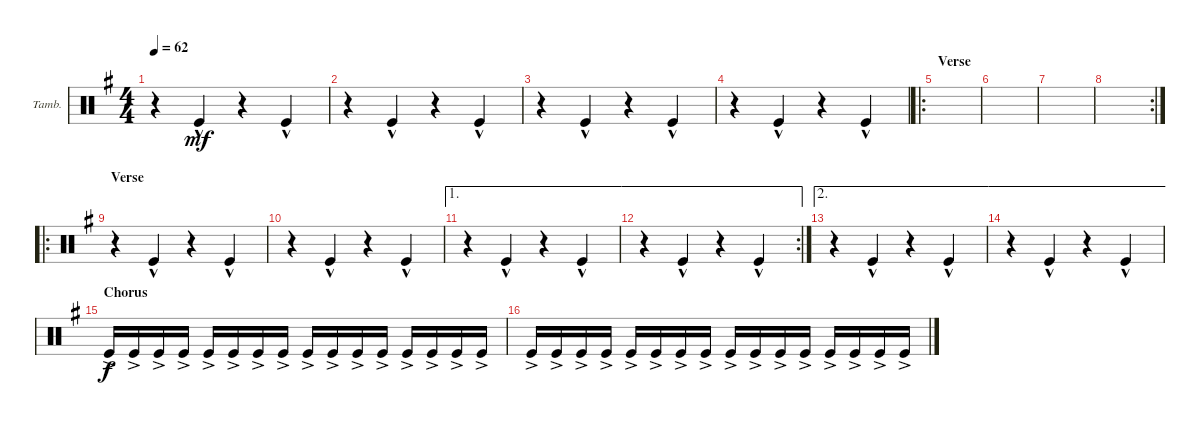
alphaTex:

\defaultSystemsLayout 4
\bracketExtendMode groupsimilarinstruments
\firstSystemTrackNameOrientation horizontal
\otherSystemsTrackNameOrientation horizontal
\track ("Tambourine" "Tamb.") {instrument percussion}
\staff {score}
\articulation defaults
\ts (4 4)
\tempo 62
\clef neutral
\scale
0.504425
\ks g
r.4{dy mf} "Kick (hit)"{hac}.4 r.4 "Kick (hit)"{hac}.4 |
\scale
0.247788 r.4 "Kick (hit)"{hac}.4 r.4 "Kick (hit)"{hac}.4 |
\scale
0.247788 r.4 "Kick (hit)"{hac}.4 r.4 "Kick (hit)"{hac}.4 |
\scale
0.333333 r.4 "Kick (hit)"{hac}.4 r.4 "Kick (hit)"{hac}.4 |
\ro
\section ("" "Verse")
\scale
0.333333 |
\scale
0.333333 |
\scale
0.333333 |
\rc 2
\scale
0.333333 |
\ro
\section ("" "Verse")
\scale
0.333333 r.4 "Kick (hit)"{hac}.4 r.4 "Kick (hit)"{hac}.4 |
\scale
0.333333 r.4 "Kick (hit)"{hac}.4 r.4 "Kick (hit)"{hac}.4 |
\ae 1
\scale
0.333333 r.4 "Kick (hit)"{hac}.4 r.4 "Kick (hit)"{hac}.4 |
\ae 1
\rc 2
\scale
0.333333 r.4 "Kick (hit)"{hac}.4 r.4 "Kick (hit)"{hac}.4 |
\ae 2
\scale
0.333333 r.4 "Kick (hit)"{hac}.4 r.4 "Kick (hit)"{hac}.4 |
\ae 2
\scale
0.333333 r.4 "Kick (hit)"{hac}.4 r.4 "Kick (hit)"{hac}.4 |
\section ("" "Chorus")
\scale
0.333333 "Kick (hit)"{ac}.16{dy f} "Kick (hit)"{ac}.16 "Kick (hit)"{ac}.16 "Kick (hit)"{ac}.16 "Kick (hit)"{ac}.16 "Kick (hit)"{ac}.16 "Kick (hit)"{ac}.16 "Kick (hit)"{ac}.16 "Kick (hit)"{ac}.16 "Kick (hit)"{ac}.16 "Kick (hit)"{ac}.16 "Kick (hit)"{ac}.16 "Kick (hit)"{ac}.16 "Kick (hit)"{ac}.16 "Kick (hit)"{ac}.16 "Kick (hit)"{ac}.16 |
\scale
0.333333 "Kick (hit)"{ac}.16 "Kick (hit)"{ac}.16 "Kick (hit)"{ac}.16 "Kick (hit)"{ac}.16 "Kick (hit)"{ac}.16 "Kick (hit)"{ac}.16 "Kick (hit)"{ac}.16 "Kick (hit)"{ac}.16 "Kick (hit)"{ac}.16 "Kick (hit)"{ac}.16 "Kick (hit)"{ac}.16 "Kick (hit)"{ac}.16 "Kick (hit)"{ac}.16 "Kick (hit)"{ac}.16 "Kick (hit)"{ac}.16 "Kick (hit)"{ac}.16
